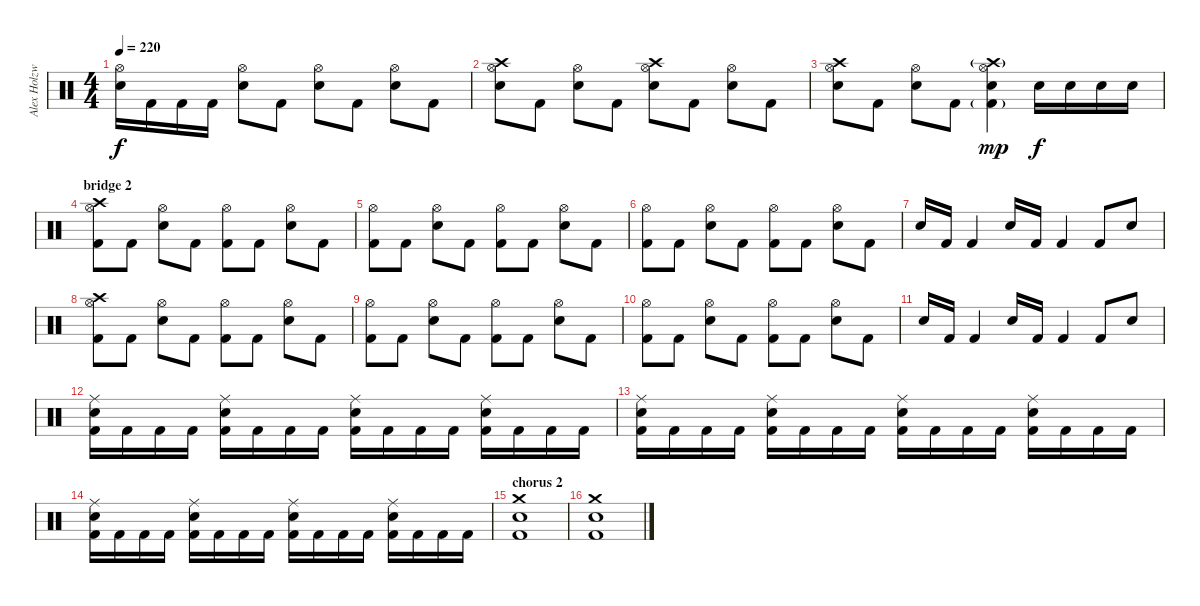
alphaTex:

\track ("Alex Holzwarth" "Alex Holzw") {instrument percussion}
\staff {score}
\articulation defaults
\ts (4 4)
\tempo 220
\clef neutral
\ks c
("Hi-Hat (open)" "Electric Snare (hit)").16{dy f} "Kick (hit) 2".16 "Kick (hit) 2".16 "Kick (hit) 2".16 ("Hi-Hat (open)" "Electric Snare (hit)").8 "Kick (hit) 2".8 ("Hi-Hat (open)" "Electric Snare (hit)").8 "Kick (hit) 2".8 ("Hi-Hat (open)" "Electric Snare (hit)").8 "Kick (hit) 2".8 |
("Crash high (hit)" "Hi-Hat (open)" "Electric Snare (hit)").8 "Kick (hit) 2".8 ("Hi-Hat (open)" "Electric Snare (hit)").8 "Kick (hit) 2".8 ("Crash high (hit)" "Hi-Hat (open)" "Electric Snare (hit)").8 "Kick (hit) 2".8 ("Hi-Hat (open)" "Electric Snare (hit)").8 "Kick (hit) 2".8 |
("Crash high (hit)" "Hi-Hat (open)" "Electric Snare (hit)").8 "Kick (hit) 2".8 ("Hi-Hat (open)" "Electric Snare (hit)").8 "Kick (hit) 2".8 ("Crash high (hit)"{g} "Hi-Hat (open)" "Electric Snare (hit)" "Kick (hit) 2"{g}).4{dy mp} "Snare (hit) 2".16{dy f} "Snare (hit) 2".16 "Snare (hit) 2".16 "Snare (hit) 2".16 |
\section ("" "bridge 2")
("Crash high (hit)" "Hi-Hat (open)" "Kick (hit) 2").8 "Kick (hit) 2".8 ("Hi-Hat (open)" "Electric Snare (hit)").8 "Kick (hit) 2".8 ("Hi-Hat (open)" "Kick (hit) 2").8 "Kick (hit) 2".8 ("Hi-Hat (open)" "Electric Snare (hit)").8 "Kick (hit) 2".8 |
("Hi-Hat (open)" "Kick (hit) 2").8 "Kick (hit) 2".8 ("Hi-Hat (open)" "Electric Snare (hit)").8 "Kick (hit) 2".8 ("Hi-Hat (open)" "Kick (hit) 2").8 "Kick (hit) 2".8 ("Hi-Hat (open)" "Electric Snare (hit)").8 "Kick (hit) 2".8 |
("Hi-Hat (open)" "Kick (hit) 2").8 "Kick (hit) 2".8 ("Hi-Hat (open)" "Electric Snare (hit)").8 "Kick (hit) 2".8 ("Hi-Hat (open)" "Kick (hit) 2").8 "Kick (hit) 2".8 ("Hi-Hat (open)" "Electric Snare (hit)").8 "Kick (hit) 2".8 |
"Electric Snare (hit)".16 "Kick (hit) 2".16 "Kick (hit) 2".4 "Electric Snare (hit)".16 "Kick (hit) 2".16 "Kick (hit) 2".4 "Kick (hit) 2".8 "Electric Snare (hit)".8 |
("Crash high (hit)" "Hi-Hat (open)" "Kick (hit) 2").8 "Kick (hit) 2".8 ("Hi-Hat (open)" "Electric Snare (hit)").8 "Kick (hit) 2".8 ("Hi-Hat (open)" "Kick (hit) 2").8 "Kick (hit) 2".8 ("Hi-Hat (open)" "Electric Snare (hit)").8 "Kick (hit) 2".8 |
("Hi-Hat (open)" "Kick (hit) 2").8 "Kick (hit) 2".8 ("Hi-Hat (open)" "Electric Snare (hit)").8 "Kick (hit) 2".8 ("Hi-Hat (open)" "Kick (hit) 2").8 "Kick (hit) 2".8 ("Hi-Hat (open)" "Electric Snare (hit)").8 "Kick (hit) 2".8 |
("Hi-Hat (open)" "Kick (hit) 2").8 "Kick (hit) 2".8 ("Hi-Hat (open)" "Electric Snare (hit)").8 "Kick (hit) 2".8 ("Hi-Hat (open)" "Kick (hit) 2").8 "Kick (hit) 2".8 ("Hi-Hat (open)" "Electric Snare (hit)").8 "Kick (hit) 2".8 |
"Electric Snare (hit)".16 "Kick (hit) 2".16 "Kick (hit) 2".4 "Electric Snare (hit)".16 "Kick (hit) 2".16 "Kick (hit) 2".4 "Kick (hit) 2".8 "Electric Snare (hit)".8 |
("Ride (middle)" "Snare (hit) 2" "Kick (hit) 2").16 "Kick (hit) 2".16 "Kick (hit) 2".16 "Kick (hit) 2".16 ("Ride (middle)" "Snare (hit) 2" "Kick (hit) 2").16 "Kick (hit) 2".16 "Kick (hit) 2".16 "Kick (hit) 2".16 ("Ride (middle)" "Snare (hit) 2" "Kick (hit) 2").16 "Kick (hit) 2".16 "Kick (hit) 2".16 "Kick (hit) 2".16 ("Ride (middle)" "Snare (hit) 2" "Kick (hit) 2").16 "Kick (hit) 2".16 "Kick (hit) 2".16 "Kick (hit) 2".16 |
("Ride (middle)" "Snare (hit) 2" "Kick (hit) 2").16 "Kick (hit) 2".16 "Kick (hit) 2".16 "Kick (hit) 2".16 ("Ride (middle)" "Snare (hit) 2" "Kick (hit) 2").16 "Kick (hit) 2".16 "Kick (hit) 2".16 "Kick (hit) 2".16 ("Ride (middle)" "Snare (hit) 2" "Kick (hit) 2").16 "Kick (hit) 2".16 "Kick (hit) 2".16 "Kick (hit) 2".16 ("Ride (middle)" "Snare (hit) 2" "Kick (hit) 2").16 "Kick (hit) 2".16 "Kick (hit) 2".16 "Kick (hit) 2".16 |
("Ride (middle)" "Snare (hit) 2" "Kick (hit) 2").16 "Kick (hit) 2".16 "Kick (hit) 2".16 "Kick (hit) 2".16 ("Ride (middle)" "Snare (hit) 2" "Kick (hit) 2").16 "Kick (hit) 2".16 "Kick (hit) 2".16 "Kick (hit) 2".16 ("Ride (middle)" "Snare (hit) 2" "Kick (hit) 2").16 "Kick (hit) 2".16 "Kick (hit) 2".16 "Kick (hit) 2".16 ("Ride (middle)" "Snare (hit) 2" "Kick (hit) 2").16 "Kick (hit) 2".16 "Kick (hit) 2".16 "Kick (hit) 2".16 |
\section ("" "chorus 2")
("Crash medium (hit)" "Snare (hit) 2" "Kick (hit) 2").1 |
("Crash medium (hit)" "Snare (hit) 2" "Kick (hit) 2").1
